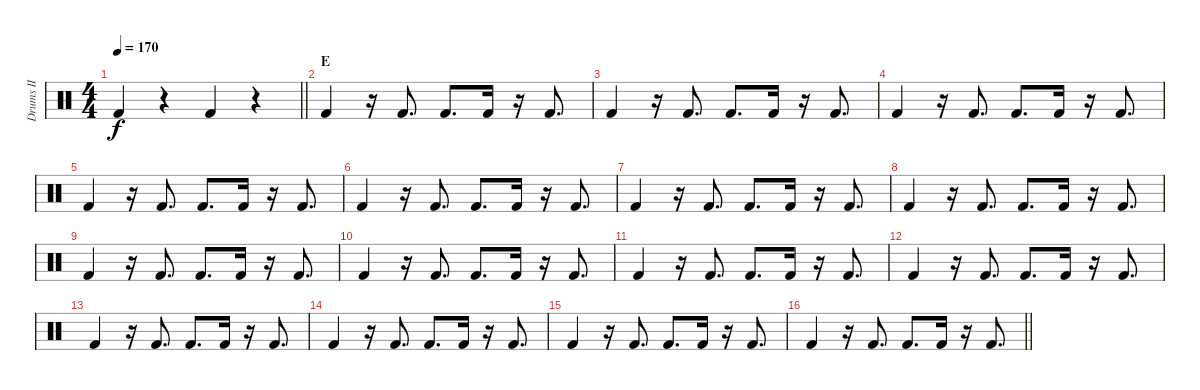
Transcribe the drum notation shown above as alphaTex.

\track ("Drums II" "Drums II") {instrument percussion}
\staff {score}
\articulation defaults
\ts (4 4)
\tempo 170
\clef neutral
\barLineRight lightlight
\ks c "Kick (hit) 2".4{dy f}
r.4 "Kick (hit) 2".4 r.4 |
\section ("" "E")
"Kick (hit) 2".4 r.16 "Kick (hit) 2".8{d} "Kick (hit) 2".8{d} "Kick (hit) 2".16 r.16 "Kick (hit) 2".8{d} |
"Kick (hit) 2".4 r.16 "Kick (hit) 2".8{d} "Kick (hit) 2".8{d} "Kick (hit) 2".16 r.16 "Kick (hit) 2".8{d} |
"Kick (hit) 2".4 r.16 "Kick (hit) 2".8{d} "Kick (hit) 2".8{d} "Kick (hit) 2".16 r.16 "Kick (hit) 2".8{d} |
"Kick (hit) 2".4 r.16 "Kick (hit) 2".8{d} "Kick (hit) 2".8{d} "Kick (hit) 2".16 r.16 "Kick (hit) 2".8{d} |
"Kick (hit) 2".4 r.16 "Kick (hit) 2".8{d} "Kick (hit) 2".8{d} "Kick (hit) 2".16 r.16 "Kick (hit) 2".8{d} |
"Kick (hit) 2".4 r.16 "Kick (hit) 2".8{d} "Kick (hit) 2".8{d} "Kick (hit) 2".16 r.16 "Kick (hit) 2".8{d} |
"Kick (hit) 2".4 r.16 "Kick (hit) 2".8{d} "Kick (hit) 2".8{d} "Kick (hit) 2".16 r.16 "Kick (hit) 2".8{d} |
"Kick (hit) 2".4 r.16 "Kick (hit) 2".8{d} "Kick (hit) 2".8{d} "Kick (hit) 2".16 r.16 "Kick (hit) 2".8{d} |
"Kick (hit) 2".4 r.16 "Kick (hit) 2".8{d} "Kick (hit) 2".8{d} "Kick (hit) 2".16 r.16 "Kick (hit) 2".8{d} |
"Kick (hit) 2".4 r.16 "Kick (hit) 2".8{d} "Kick (hit) 2".8{d} "Kick (hit) 2".16 r.16 "Kick (hit) 2".8{d} |
"Kick (hit) 2".4 r.16 "Kick (hit) 2".8{d} "Kick (hit) 2".8{d} "Kick (hit) 2".16 r.16 "Kick (hit) 2".8{d} |
"Kick (hit) 2".4 r.16 "Kick (hit) 2".8{d} "Kick (hit) 2".8{d} "Kick (hit) 2".16 r.16 "Kick (hit) 2".8{d} |
"Kick (hit) 2".4 r.16 "Kick (hit) 2".8{d} "Kick (hit) 2".8{d} "Kick (hit) 2".16 r.16 "Kick (hit) 2".8{d} |
"Kick (hit) 2".4 r.16 "Kick (hit) 2".8{d} "Kick (hit) 2".8{d} "Kick (hit) 2".16 r.16 "Kick (hit) 2".8{d} |
\barLineRight lightlight "Kick (hit) 2".4
r.16 "Kick (hit) 2".8{d} "Kick (hit) 2".8{d} "Kick (hit) 2".16 r.16 "Kick (hit) 2".8{d}
